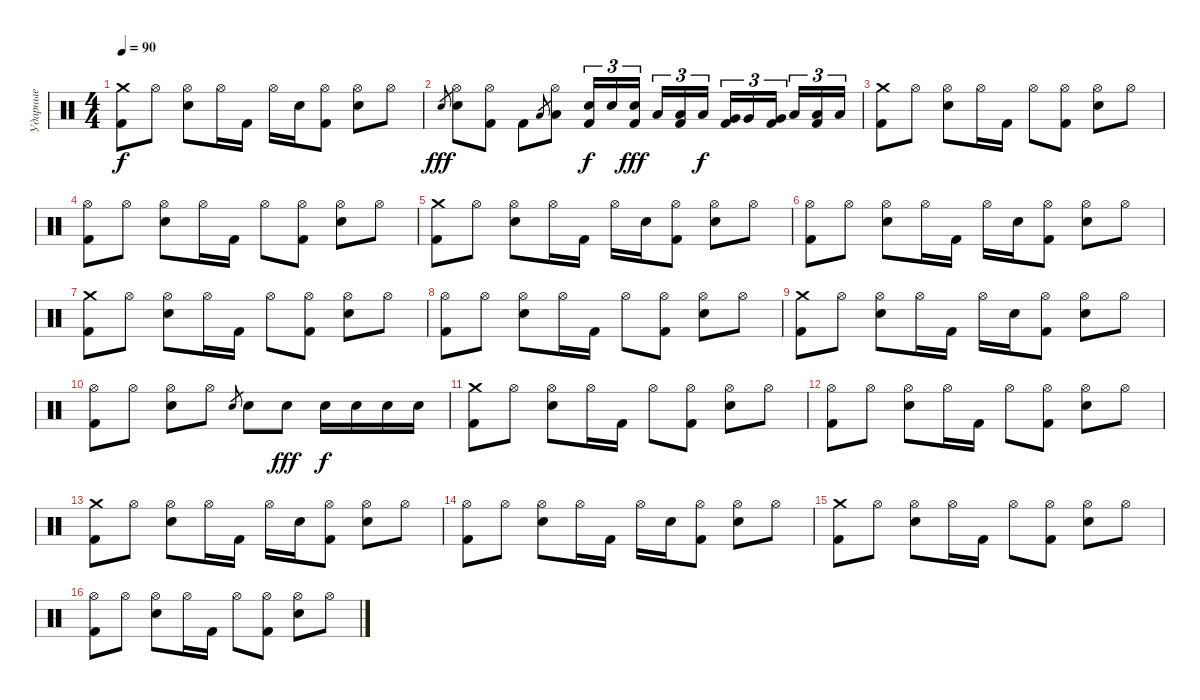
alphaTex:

\track ("Ударные" "Ударные") {instrument percussion}
\staff {score}
\articulation defaults
\ts (4 4)
\tempo 90
\clef neutral
\ks c
("Crash medium (hit)" "Kick (hit) 2").8{dy f} "Hi-Hat (open)".8 ("Hi-Hat (open)" "Snare (hit) 2").8 "Hi-Hat (open)".16 "Kick (hit) 2".16 "Hi-Hat (open)".16 "Snare (hit) 2".16 ("Hi-Hat (open)" "Kick (hit) 2").8 ("Hi-Hat (open)" "Snare (hit) 2").8 "Hi-Hat (open)".8 |
"Snare (hit) 2".8{gr dy fff} ("Hi-Hat (open)" "Snare (hit) 2").8 ("Hi-Hat (open)" "Kick (hit) 2").8 "Kick (hit) 2".8 "Low Tom (hit)".8{gr} ("Hi-Hat (open)" "Low Tom (hit)").8 ("Snare (hit) 2" "Kick (hit) 2").16{tu (3 2) dy f} "Snare (hit) 2".16{tu (3 2)} ("Snare (hit) 2" "Kick (hit) 2").16{tu (3 2) dy fff beam splitsecondary} "Low Tom (hit)".16{tu (3 2)} ("Low Tom (hit)" "Kick (hit) 2").16{tu (3 2)} "Low Tom (hit)".16{tu (3 2) dy f} ("Very Low Tom (hit)" "Kick (hit) 2").16{tu (3 2)} "Very Low Tom (hit)".16{tu (3 2)} ("Very Low Tom (hit)" "Kick (hit) 2").16{tu (3 2) beam splitsecondary} "Low Floor Tom (hit)".16{tu (3 2)} ("Low Floor Tom (hit)" "Kick (hit) 2").16{tu (3 2)} "Low Floor Tom (hit)".16{tu (3 2)} |
("Crash medium (hit)" "Kick (hit) 2").8 "Hi-Hat (open)".8 ("Hi-Hat (open)" "Snare (hit) 2").8 "Hi-Hat (open)".16 "Kick (hit) 2".16 "Hi-Hat (open)".8 ("Hi-Hat (open)" "Kick (hit) 2").8 ("Hi-Hat (open)" "Snare (hit) 2").8 "Hi-Hat (open)".8 |
("Hi-Hat (open)" "Kick (hit) 2").8 "Hi-Hat (open)".8 ("Hi-Hat (open)" "Snare (hit) 2").8 "Hi-Hat (open)".16 "Kick (hit) 2".16 "Hi-Hat (open)".8 ("Hi-Hat (open)" "Kick (hit) 2").8 ("Hi-Hat (open)" "Snare (hit) 2").8 "Hi-Hat (open)".8 |
("Crash medium (hit)" "Kick (hit) 2").8 "Hi-Hat (open)".8 ("Hi-Hat (open)" "Snare (hit) 2").8 "Hi-Hat (open)".16 "Kick (hit) 2".16 "Hi-Hat (open)".16 "Snare (hit) 2".16 ("Hi-Hat (open)" "Kick (hit) 2").8 ("Hi-Hat (open)" "Snare (hit) 2").8 "Hi-Hat (open)".8 |
("Hi-Hat (open)" "Kick (hit) 2").8 "Hi-Hat (open)".8 ("Hi-Hat (open)" "Snare (hit) 2").8 "Hi-Hat (open)".16 "Kick (hit) 2".16 "Hi-Hat (open)".16 "Snare (hit) 2".16 ("Hi-Hat (open)" "Kick (hit) 2").8 ("Hi-Hat (open)" "Snare (hit) 2").8 "Hi-Hat (open)".8 |
("Crash medium (hit)" "Kick (hit) 2").8 "Hi-Hat (open)".8 ("Hi-Hat (open)" "Snare (hit) 2").8 "Hi-Hat (open)".16 "Kick (hit) 2".16 "Hi-Hat (open)".8 ("Hi-Hat (open)" "Kick (hit) 2").8 ("Hi-Hat (open)" "Snare (hit) 2").8 "Hi-Hat (open)".8 |
("Hi-Hat (open)" "Kick (hit) 2").8 "Hi-Hat (open)".8 ("Hi-Hat (open)" "Snare (hit) 2").8 "Hi-Hat (open)".16 "Kick (hit) 2".16 "Hi-Hat (open)".8 ("Hi-Hat (open)" "Kick (hit) 2").8 ("Hi-Hat (open)" "Snare (hit) 2").8 "Hi-Hat (open)".8 |
("Crash medium (hit)" "Kick (hit) 2").8 "Hi-Hat (open)".8 ("Hi-Hat (open)" "Snare (hit) 2").8 "Hi-Hat (open)".16 "Kick (hit) 2".16 "Hi-Hat (open)".16 "Snare (hit) 2".16 ("Hi-Hat (open)" "Kick (hit) 2").8 ("Hi-Hat (open)" "Snare (hit) 2").8 "Hi-Hat (open)".8 |
("Hi-Hat (open)" "Kick (hit) 2").8 "Hi-Hat (open)".8 ("Hi-Hat (open)" "Snare (hit) 2").8 "Hi-Hat (open)".8 "Snare (hit) 2".8{gr} "Snare (hit) 2".8 "Snare (hit) 2".8{dy fff} "Snare (hit) 2".16{dy f} "Snare (hit) 2".16 "Snare (hit) 2".16 "Snare (hit) 2".16 |
("Crash medium (hit)" "Kick (hit) 2").8 "Hi-Hat (open)".8 ("Hi-Hat (open)" "Snare (hit) 2").8 "Hi-Hat (open)".16 "Kick (hit) 2".16 "Hi-Hat (open)".8 ("Hi-Hat (open)" "Kick (hit) 2").8 ("Hi-Hat (open)" "Snare (hit) 2").8 "Hi-Hat (open)".8 |
("Hi-Hat (open)" "Kick (hit) 2").8 "Hi-Hat (open)".8 ("Hi-Hat (open)" "Snare (hit) 2").8 "Hi-Hat (open)".16 "Kick (hit) 2".16 "Hi-Hat (open)".8 ("Hi-Hat (open)" "Kick (hit) 2").8 ("Hi-Hat (open)" "Snare (hit) 2").8 "Hi-Hat (open)".8 |
("Crash medium (hit)" "Kick (hit) 2").8 "Hi-Hat (open)".8 ("Hi-Hat (open)" "Snare (hit) 2").8 "Hi-Hat (open)".16 "Kick (hit) 2".16 "Hi-Hat (open)".16 "Snare (hit) 2".16 ("Hi-Hat (open)" "Kick (hit) 2").8 ("Hi-Hat (open)" "Snare (hit) 2").8 "Hi-Hat (open)".8 |
("Hi-Hat (open)" "Kick (hit) 2").8 "Hi-Hat (open)".8 ("Hi-Hat (open)" "Snare (hit) 2").8 "Hi-Hat (open)".16 "Kick (hit) 2".16 "Hi-Hat (open)".16 "Snare (hit) 2".16 ("Hi-Hat (open)" "Kick (hit) 2").8 ("Hi-Hat (open)" "Snare (hit) 2").8 "Hi-Hat (open)".8 |
("Crash medium (hit)" "Kick (hit) 2").8 "Hi-Hat (open)".8 ("Hi-Hat (open)" "Snare (hit) 2").8 "Hi-Hat (open)".16 "Kick (hit) 2".16 "Hi-Hat (open)".8 ("Hi-Hat (open)" "Kick (hit) 2").8 ("Hi-Hat (open)" "Snare (hit) 2").8 "Hi-Hat (open)".8 |
("Hi-Hat (open)" "Kick (hit) 2").8 "Hi-Hat (open)".8 ("Hi-Hat (open)" "Snare (hit) 2").8 "Hi-Hat (open)".16 "Kick (hit) 2".16 "Hi-Hat (open)".8 ("Hi-Hat (open)" "Kick (hit) 2").8 ("Hi-Hat (open)" "Snare (hit) 2").8 "Hi-Hat (open)".8
